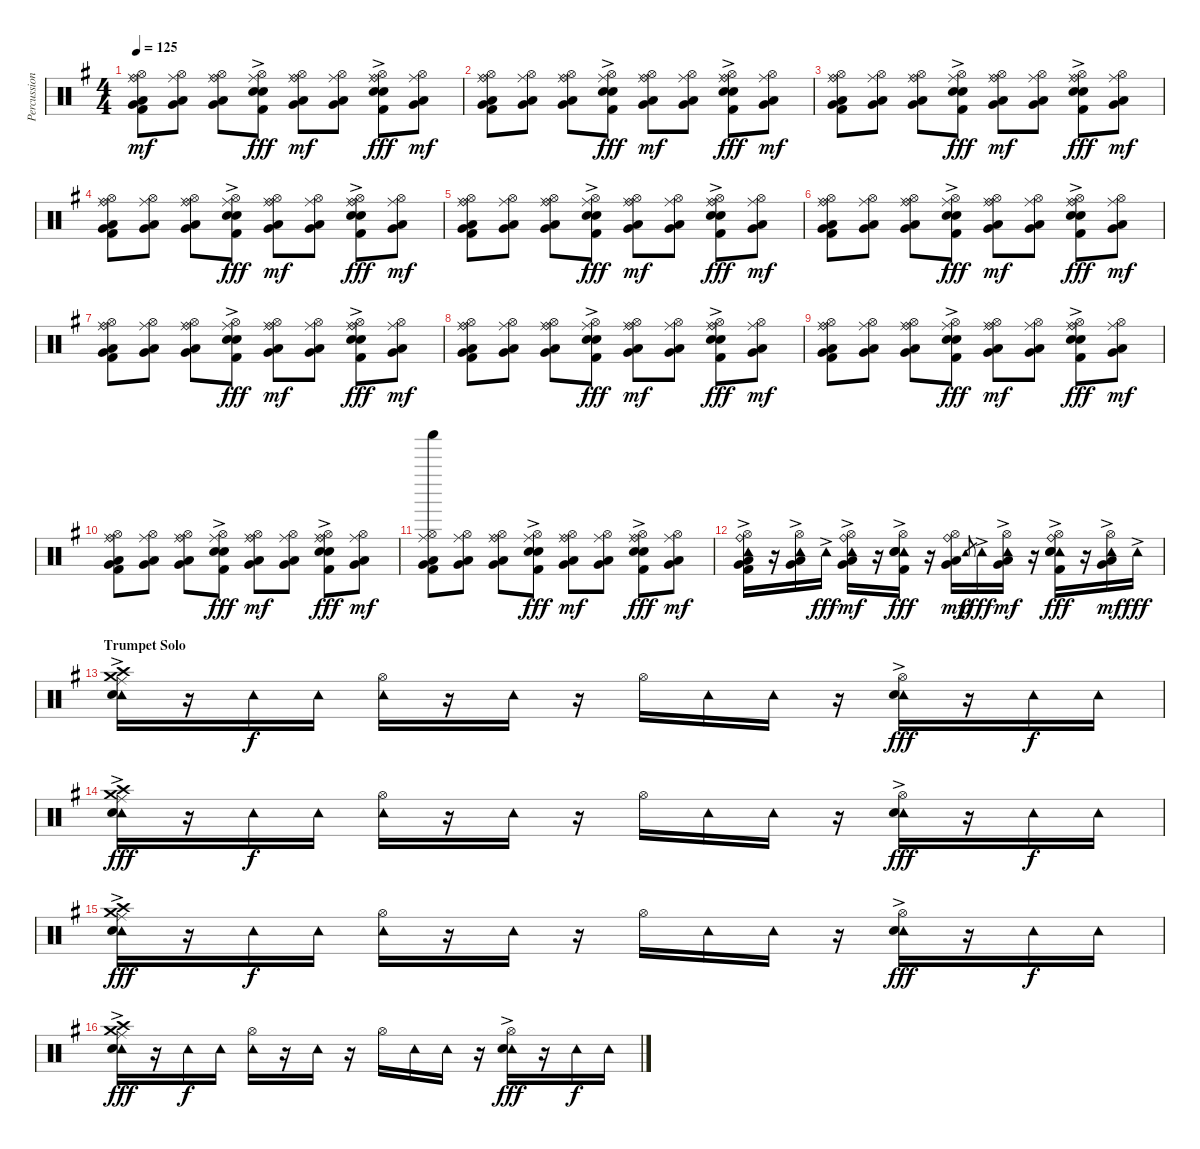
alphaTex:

\track ("Percussion" "Percussion") {instrument percussion}
\staff {score}
\articulation defaults
\ts (4 4)
\tempo 125
\clef neutral
\ks g
("Ride (bell)" "Hi-Hat (open)" "Ride (middle)" "Low Tom (hit)" "Very Low Tom (hit)" "Kick (hit) 2").8{dy mf} ("Hi-Hat (open)" "Ride (middle)" "Low Tom (hit)" "Very Low Tom (hit)").8 ("Ride (bell)" "Hi-Hat (open)" "Ride (middle)" "Low Tom (hit)" "Very Low Tom (hit)").8 ("Hi-Hat (open)" "Ride (middle)" "Electric Snare (hit)"{ac} "Snare (hit) 2"{ac} "Kick (hit) 2").8{dy fff} ("Ride (bell)" "Hi-Hat (open)" "Ride (middle)" "Low Tom (hit)" "Very Low Tom (hit)").8{dy mf} ("Hi-Hat (open)" "Ride (middle)" "Low Tom (hit)" "Very Low Tom (hit)").8 ("Ride (bell)" "Hi-Hat (open)" "Ride (middle)" "Electric Snare (hit)"{ac} "Snare (hit) 2"{ac} "Kick (hit) 2").8{dy fff} ("Hi-Hat (open)" "Ride (middle)" "Low Tom (hit)" "Very Low Tom (hit)").8{dy mf} |
("Ride (bell)" "Hi-Hat (open)" "Ride (middle)" "Low Tom (hit)" "Very Low Tom (hit)" "Kick (hit) 2").8 ("Hi-Hat (open)" "Ride (middle)" "Low Tom (hit)" "Very Low Tom (hit)").8 ("Ride (bell)" "Hi-Hat (open)" "Ride (middle)" "Low Tom (hit)" "Very Low Tom (hit)").8 ("Hi-Hat (open)" "Ride (middle)" "Electric Snare (hit)"{ac} "Snare (hit) 2"{ac} "Kick (hit) 2").8{dy fff} ("Ride (bell)" "Hi-Hat (open)" "Ride (middle)" "Low Tom (hit)" "Very Low Tom (hit)").8{dy mf} ("Hi-Hat (open)" "Ride (middle)" "Low Tom (hit)" "Very Low Tom (hit)").8 ("Ride (bell)" "Hi-Hat (open)" "Ride (middle)" "Electric Snare (hit)"{ac} "Snare (hit) 2"{ac} "Kick (hit) 2").8{dy fff} ("Hi-Hat (open)" "Ride (middle)" "Low Tom (hit)" "Very Low Tom (hit)").8{dy mf} |
("Ride (bell)" "Hi-Hat (open)" "Ride (middle)" "Low Tom (hit)" "Very Low Tom (hit)" "Kick (hit) 2").8 ("Hi-Hat (open)" "Ride (middle)" "Low Tom (hit)" "Very Low Tom (hit)").8 ("Ride (bell)" "Hi-Hat (open)" "Ride (middle)" "Low Tom (hit)" "Very Low Tom (hit)").8 ("Hi-Hat (open)" "Ride (middle)" "Electric Snare (hit)"{ac} "Snare (hit) 2"{ac} "Kick (hit) 2").8{dy fff} ("Ride (bell)" "Hi-Hat (open)" "Ride (middle)" "Low Tom (hit)" "Very Low Tom (hit)").8{dy mf} ("Hi-Hat (open)" "Ride (middle)" "Low Tom (hit)" "Very Low Tom (hit)").8 ("Ride (bell)" "Hi-Hat (open)" "Ride (middle)" "Electric Snare (hit)"{ac} "Snare (hit) 2"{ac} "Kick (hit) 2").8{dy fff} ("Hi-Hat (open)" "Ride (middle)" "Low Tom (hit)" "Very Low Tom (hit)").8{dy mf} |
("Ride (bell)" "Hi-Hat (open)" "Ride (middle)" "Low Tom (hit)" "Very Low Tom (hit)" "Kick (hit) 2").8 ("Hi-Hat (open)" "Ride (middle)" "Low Tom (hit)" "Very Low Tom (hit)").8 ("Ride (bell)" "Hi-Hat (open)" "Ride (middle)" "Low Tom (hit)" "Very Low Tom (hit)").8 ("Hi-Hat (open)" "Ride (middle)" "Electric Snare (hit)"{ac} "Snare (hit) 2"{ac} "Kick (hit) 2").8{dy fff} ("Ride (bell)" "Hi-Hat (open)" "Ride (middle)" "Low Tom (hit)" "Very Low Tom (hit)").8{dy mf} ("Hi-Hat (open)" "Ride (middle)" "Low Tom (hit)" "Very Low Tom (hit)").8 ("Ride (bell)" "Hi-Hat (open)" "Ride (middle)" "Electric Snare (hit)"{ac} "Snare (hit) 2"{ac} "Kick (hit) 2").8{dy fff} ("Hi-Hat (open)" "Ride (middle)" "Low Tom (hit)" "Very Low Tom (hit)").8{dy mf} |
("Ride (bell)" "Hi-Hat (open)" "Ride (middle)" "Low Tom (hit)" "Very Low Tom (hit)" "Kick (hit) 2").8 ("Hi-Hat (open)" "Ride (middle)" "Low Tom (hit)" "Very Low Tom (hit)").8 ("Ride (bell)" "Hi-Hat (open)" "Ride (middle)" "Low Tom (hit)" "Very Low Tom (hit)").8 ("Hi-Hat (open)" "Ride (middle)" "Electric Snare (hit)"{ac} "Snare (hit) 2"{ac} "Kick (hit) 2").8{dy fff} ("Ride (bell)" "Hi-Hat (open)" "Ride (middle)" "Low Tom (hit)" "Very Low Tom (hit)").8{dy mf} ("Hi-Hat (open)" "Ride (middle)" "Low Tom (hit)" "Very Low Tom (hit)").8 ("Ride (bell)" "Hi-Hat (open)" "Ride (middle)" "Electric Snare (hit)"{ac} "Snare (hit) 2"{ac} "Kick (hit) 2").8{dy fff} ("Hi-Hat (open)" "Ride (middle)" "Low Tom (hit)" "Very Low Tom (hit)").8{dy mf} |
("Ride (bell)" "Hi-Hat (open)" "Ride (middle)" "Low Tom (hit)" "Very Low Tom (hit)" "Kick (hit) 2").8 ("Hi-Hat (open)" "Ride (middle)" "Low Tom (hit)" "Very Low Tom (hit)").8 ("Ride (bell)" "Hi-Hat (open)" "Ride (middle)" "Low Tom (hit)" "Very Low Tom (hit)").8 ("Hi-Hat (open)" "Ride (middle)" "Electric Snare (hit)"{ac} "Snare (hit) 2"{ac} "Kick (hit) 2").8{dy fff} ("Ride (bell)" "Hi-Hat (open)" "Ride (middle)" "Low Tom (hit)" "Very Low Tom (hit)").8{dy mf} ("Hi-Hat (open)" "Ride (middle)" "Low Tom (hit)" "Very Low Tom (hit)").8 ("Ride (bell)" "Hi-Hat (open)" "Ride (middle)" "Electric Snare (hit)"{ac} "Snare (hit) 2"{ac} "Kick (hit) 2").8{dy fff} ("Hi-Hat (open)" "Ride (middle)" "Low Tom (hit)" "Very Low Tom (hit)").8{dy mf} |
("Ride (bell)" "Hi-Hat (open)" "Ride (middle)" "Low Tom (hit)" "Very Low Tom (hit)" "Kick (hit) 2").8 ("Hi-Hat (open)" "Ride (middle)" "Low Tom (hit)" "Very Low Tom (hit)").8 ("Ride (bell)" "Hi-Hat (open)" "Ride (middle)" "Low Tom (hit)" "Very Low Tom (hit)").8 ("Hi-Hat (open)" "Ride (middle)" "Electric Snare (hit)"{ac} "Snare (hit) 2"{ac} "Kick (hit) 2").8{dy fff} ("Ride (bell)" "Hi-Hat (open)" "Ride (middle)" "Low Tom (hit)" "Very Low Tom (hit)").8{dy mf} ("Hi-Hat (open)" "Ride (middle)" "Low Tom (hit)" "Very Low Tom (hit)").8 ("Ride (bell)" "Hi-Hat (open)" "Ride (middle)" "Electric Snare (hit)"{ac} "Snare (hit) 2"{ac} "Kick (hit) 2").8{dy fff} ("Hi-Hat (open)" "Ride (middle)" "Low Tom (hit)" "Very Low Tom (hit)").8{dy mf} |
("Ride (bell)" "Hi-Hat (open)" "Ride (middle)" "Low Tom (hit)" "Very Low Tom (hit)" "Kick (hit) 2").8 ("Hi-Hat (open)" "Ride (middle)" "Low Tom (hit)" "Very Low Tom (hit)").8 ("Ride (bell)" "Hi-Hat (open)" "Ride (middle)" "Low Tom (hit)" "Very Low Tom (hit)").8 ("Hi-Hat (open)" "Ride (middle)" "Electric Snare (hit)"{ac} "Snare (hit) 2"{ac} "Kick (hit) 2").8{dy fff} ("Ride (bell)" "Hi-Hat (open)" "Ride (middle)" "Low Tom (hit)" "Very Low Tom (hit)").8{dy mf} ("Hi-Hat (open)" "Ride (middle)" "Low Tom (hit)" "Very Low Tom (hit)").8 ("Ride (bell)" "Hi-Hat (open)" "Ride (middle)" "Electric Snare (hit)"{ac} "Snare (hit) 2"{ac} "Kick (hit) 2").8{dy fff} ("Hi-Hat (open)" "Ride (middle)" "Low Tom (hit)" "Very Low Tom (hit)").8{dy mf} |
("Ride (bell)" "Hi-Hat (open)" "Ride (middle)" "Low Tom (hit)" "Very Low Tom (hit)" "Kick (hit) 2").8 ("Hi-Hat (open)" "Ride (middle)" "Low Tom (hit)" "Very Low Tom (hit)").8 ("Ride (bell)" "Hi-Hat (open)" "Ride (middle)" "Low Tom (hit)" "Very Low Tom (hit)").8 ("Hi-Hat (open)" "Ride (middle)" "Electric Snare (hit)"{ac} "Snare (hit) 2"{ac} "Kick (hit) 2").8{dy fff} ("Ride (bell)" "Hi-Hat (open)" "Ride (middle)" "Low Tom (hit)" "Very Low Tom (hit)").8{dy mf} ("Hi-Hat (open)" "Ride (middle)" "Low Tom (hit)" "Very Low Tom (hit)").8 ("Ride (bell)" "Hi-Hat (open)" "Ride (middle)" "Electric Snare (hit)"{ac} "Snare (hit) 2"{ac} "Kick (hit) 2").8{dy fff} ("Hi-Hat (open)" "Ride (middle)" "Low Tom (hit)" "Very Low Tom (hit)").8{dy mf} |
("Ride (bell)" "Hi-Hat (open)" "Ride (middle)" "Low Tom (hit)" "Very Low Tom (hit)" "Kick (hit) 2").8 ("Hi-Hat (open)" "Ride (middle)" "Low Tom (hit)" "Very Low Tom (hit)").8 ("Ride (bell)" "Hi-Hat (open)" "Ride (middle)" "Low Tom (hit)" "Very Low Tom (hit)").8 ("Hi-Hat (open)" "Ride (middle)" "Electric Snare (hit)"{ac} "Snare (hit) 2"{ac} "Kick (hit) 2").8{dy fff} ("Ride (bell)" "Hi-Hat (open)" "Ride (middle)" "Low Tom (hit)" "Very Low Tom (hit)").8{dy mf} ("Hi-Hat (open)" "Ride (middle)" "Low Tom (hit)" "Very Low Tom (hit)").8 ("Ride (bell)" "Hi-Hat (open)" "Ride (middle)" "Electric Snare (hit)"{ac} "Snare (hit) 2"{ac} "Kick (hit) 2").8{dy fff} ("Hi-Hat (open)" "Ride (middle)" "Low Tom (hit)" "Very Low Tom (hit)").8{dy mf} |
("Shaker (hit)" "Hi-Hat (open)" "Ride (middle)" "Low Tom (hit)" "Very Low Tom (hit)" "Kick (hit) 2").8 ("Hi-Hat (open)" "Ride (middle)" "Low Tom (hit)" "Very Low Tom (hit)").8 ("Ride (bell)" "Hi-Hat (open)" "Ride (middle)" "Low Tom (hit)" "Very Low Tom (hit)").8 ("Hi-Hat (open)" "Ride (middle)" "Electric Snare (hit)"{ac} "Snare (hit) 2"{ac} "Kick (hit) 2").8{dy fff} ("Ride (bell)" "Hi-Hat (open)" "Ride (middle)" "Low Tom (hit)" "Very Low Tom (hit)").8{dy mf} ("Hi-Hat (open)" "Ride (middle)" "Low Tom (hit)" "Very Low Tom (hit)").8 ("Ride (bell)" "Hi-Hat (open)" "Ride (middle)" "Electric Snare (hit)"{ac} "Snare (hit) 2"{ac} "Kick (hit) 2").8{dy fff} ("Hi-Hat (open)" "Ride (middle)" "Low Tom (hit)" "Very Low Tom (hit)").8{dy mf} |
("Ride (bell)" "Hi-Hat (open)" "Tambourine (hit)"{ac} "Low Tom (hit)" "Very Low Tom (hit)" "Kick (hit) 2").16 r.16 ("Hi-Hat (open)" "Tambourine (hit)"{ac} "Low Tom (hit)" "Very Low Tom (hit)").16 "Tambourine (hit)"{ac}.16{dy fff} ("Ride (bell)" "Hi-Hat (open)" "Tambourine (hit)"{ac} "Low Tom (hit)" "Very Low Tom (hit)").16{dy mf} r.16 ("Hi-Hat (open)" "Tambourine (hit)"{ac} "Electric Snare (hit)"{ac} "Snare (hit) 2"{ac} "Kick (hit) 2").16{dy fff} r.16 ("Ride (bell)" "Hi-Hat (open)" "Low Tom (hit)" "Very Low Tom (hit)").16{dy mf} "Tambourine (hit)".8{gr dy p} "Tambourine (hit)"{ac}.16{dy fff} ("Hi-Hat (open)" "Tambourine (hit)"{ac} "Low Tom (hit)" "Very Low Tom (hit)").16{dy mf} r.16 ("Ride (bell)" "Hi-Hat (open)" "Tambourine (hit)"{ac} "Electric Snare (hit)"{ac} "Snare (hit) 2"{ac} "Kick (hit) 2").16{dy fff} r.16 ("Hi-Hat (open)" "Tambourine (hit)"{ac} "Low Tom (hit)" "Very Low Tom (hit)").16{dy mf} "Tambourine (hit)"{ac}.16{dy fff} |
\section ("" "Trumpet Solo")
("Ride (middle)"{ac} "Crash medium (hit)" "Tambourine (hit)" "Snare (hit) 2" "Crash high (hit)").16 r.16 "Tambourine (hit)".16{dy f} "Tambourine (hit)".16 ("Hi-Hat (open)" "Tambourine (hit)").16 r.16 "Tambourine (hit)".16 r.16 "Hi-Hat (open)".16 "Tambourine (hit)".16 "Tambourine (hit)".16 r.16 ("Hi-Hat (open)"{ac} "Tambourine (hit)" "Snare (hit) 2").16{dy fff} r.16 "Tambourine (hit)".16{dy f} "Tambourine (hit)".16 |
("Ride (middle)"{ac} "Crash medium (hit)" "Tambourine (hit)" "Snare (hit) 2" "Crash high (hit)").16{dy fff} r.16 "Tambourine (hit)".16{dy f} "Tambourine (hit)".16 ("Hi-Hat (open)" "Tambourine (hit)").16 r.16 "Tambourine (hit)".16 r.16 "Hi-Hat (open)".16 "Tambourine (hit)".16 "Tambourine (hit)".16 r.16 ("Hi-Hat (open)"{ac} "Tambourine (hit)" "Snare (hit) 2").16{dy fff} r.16 "Tambourine (hit)".16{dy f} "Tambourine (hit)".16 |
("Ride (middle)"{ac} "Crash medium (hit)" "Tambourine (hit)" "Snare (hit) 2" "Crash high (hit)").16{dy fff} r.16 "Tambourine (hit)".16{dy f} "Tambourine (hit)".16 ("Hi-Hat (open)" "Tambourine (hit)").16 r.16 "Tambourine (hit)".16 r.16 "Hi-Hat (open)".16 "Tambourine (hit)".16 "Tambourine (hit)".16 r.16 ("Hi-Hat (open)"{ac} "Tambourine (hit)" "Snare (hit) 2").16{dy fff} r.16 "Tambourine (hit)".16{dy f} "Tambourine (hit)".16 |
("Ride (middle)"{ac} "Crash medium (hit)" "Tambourine (hit)" "Snare (hit) 2" "Crash high (hit)").16{dy fff} r.16 "Tambourine (hit)".16{dy f} "Tambourine (hit)".16 ("Hi-Hat (open)" "Tambourine (hit)").16 r.16 "Tambourine (hit)".16 r.16 "Hi-Hat (open)".16 "Tambourine (hit)".16 "Tambourine (hit)".16 r.16 ("Hi-Hat (open)"{ac} "Tambourine (hit)" "Snare (hit) 2").16{dy fff} r.16 "Tambourine (hit)".16{dy f} "Tambourine (hit)".16
